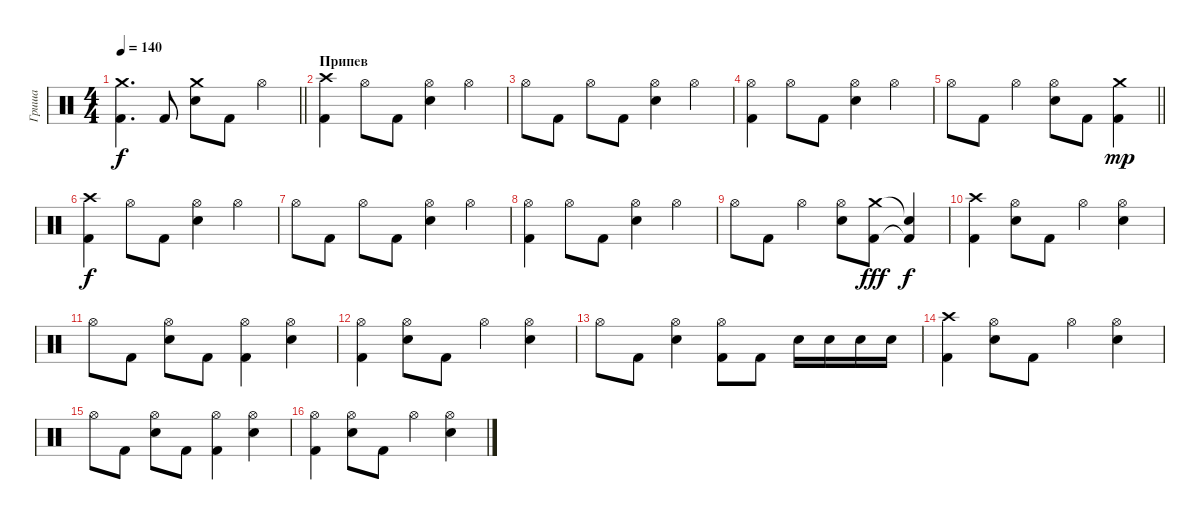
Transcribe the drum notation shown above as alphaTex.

\track ("Гриша" "Гриша") {instrument percussion}
\staff {score}
\articulation defaults
\ts (4 4)
\tempo 140
\clef neutral
\barLineRight lightlight
\ks c
("Crash medium (hit)" "Kick (hit) 2").4{d dy f} "Kick (hit) 2".8 ("Crash medium (hit)" "Electric Snare (hit)").8 "Kick (hit) 2".8 "Hi-Hat (open)".4 |
\section ("" "Припев")
("Crash high (hit)" "Kick (hit) 2").4 "Hi-Hat (open)".8 "Kick (hit) 2".8 ("Hi-Hat (open)" "Electric Snare (hit)").4 "Hi-Hat (open)".4 |
"Hi-Hat (open)".8 "Kick (hit) 2".8 "Hi-Hat (open)".8 "Kick (hit) 2".8 ("Hi-Hat (open)" "Electric Snare (hit)").4 "Hi-Hat (open)".4 |
("Hi-Hat (open)" "Kick (hit) 2").4 "Hi-Hat (open)".8 "Kick (hit) 2".8 ("Hi-Hat (open)" "Electric Snare (hit)").4 "Hi-Hat (open)".4 |
\barLineRight lightlight "Hi-Hat (open)".8 "Kick (hit) 2".8 "Hi-Hat (open)".4
("Hi-Hat (open)" "Electric Snare (hit)").8 "Kick (hit) 2".8 ("Crash medium (hit)" "Kick (hit) 2").4{dy mp} |
("Crash high (hit)" "Kick (hit) 2").4{dy f} "Hi-Hat (open)".8 "Kick (hit) 2".8 ("Hi-Hat (open)" "Electric Snare (hit)").4 "Hi-Hat (open)".4 |
"Hi-Hat (open)".8 "Kick (hit) 2".8 "Hi-Hat (open)".8 "Kick (hit) 2".8 ("Hi-Hat (open)" "Electric Snare (hit)").4 "Hi-Hat (open)".4 |
("Hi-Hat (open)" "Kick (hit) 2").4 "Hi-Hat (open)".8 "Kick (hit) 2".8 ("Hi-Hat (open)" "Electric Snare (hit)").4 "Hi-Hat (open)".4 |
"Hi-Hat (open)".8 "Kick (hit) 2".8 "Hi-Hat (open)".4 ("Hi-Hat (open)" "Electric Snare (hit)").8 ("Crash medium (hit)" "Kick (hit) 2").8{dy fff} ("Snare (hit)"{t} "Kick (hit) 2"{t}).4{dy f} |
("Crash high (hit)" "Kick (hit) 2").4 ("Hi-Hat (open)" "Electric Snare (hit)").8 "Kick (hit) 2".8 "Hi-Hat (open)".4 ("Hi-Hat (open)" "Electric Snare (hit)").4 |
"Hi-Hat (open)".8 "Kick (hit) 2".8 ("Hi-Hat (open)" "Electric Snare (hit)").8 "Kick (hit) 2".8 ("Hi-Hat (open)" "Kick (hit) 2").4 ("Hi-Hat (open)" "Electric Snare (hit)").4 |
("Hi-Hat (open)" "Kick (hit) 2").4 ("Hi-Hat (open)" "Electric Snare (hit)").8 "Kick (hit) 2".8 "Hi-Hat (open)".4 ("Hi-Hat (open)" "Electric Snare (hit)").4 |
"Hi-Hat (open)".8 "Kick (hit) 2".8 ("Hi-Hat (open)" "Electric Snare (hit)").4 ("Hi-Hat (open)" "Kick (hit) 2").8 "Kick (hit) 2".8 "Electric Snare (hit)".16 "Electric Snare (hit)".16 "Electric Snare (hit)".16 "Electric Snare (hit)".16 |
("Crash high (hit)" "Kick (hit) 2").4 ("Hi-Hat (open)" "Electric Snare (hit)").8 "Kick (hit) 2".8 "Hi-Hat (open)".4 ("Hi-Hat (open)" "Electric Snare (hit)").4 |
"Hi-Hat (open)".8 "Kick (hit) 2".8 ("Hi-Hat (open)" "Electric Snare (hit)").8 "Kick (hit) 2".8 ("Hi-Hat (open)" "Kick (hit) 2").4 ("Hi-Hat (open)" "Electric Snare (hit)").4 |
("Hi-Hat (open)" "Kick (hit) 2").4 ("Hi-Hat (open)" "Electric Snare (hit)").8 "Kick (hit) 2".8 "Hi-Hat (open)".4 ("Hi-Hat (open)" "Electric Snare (hit)").4
